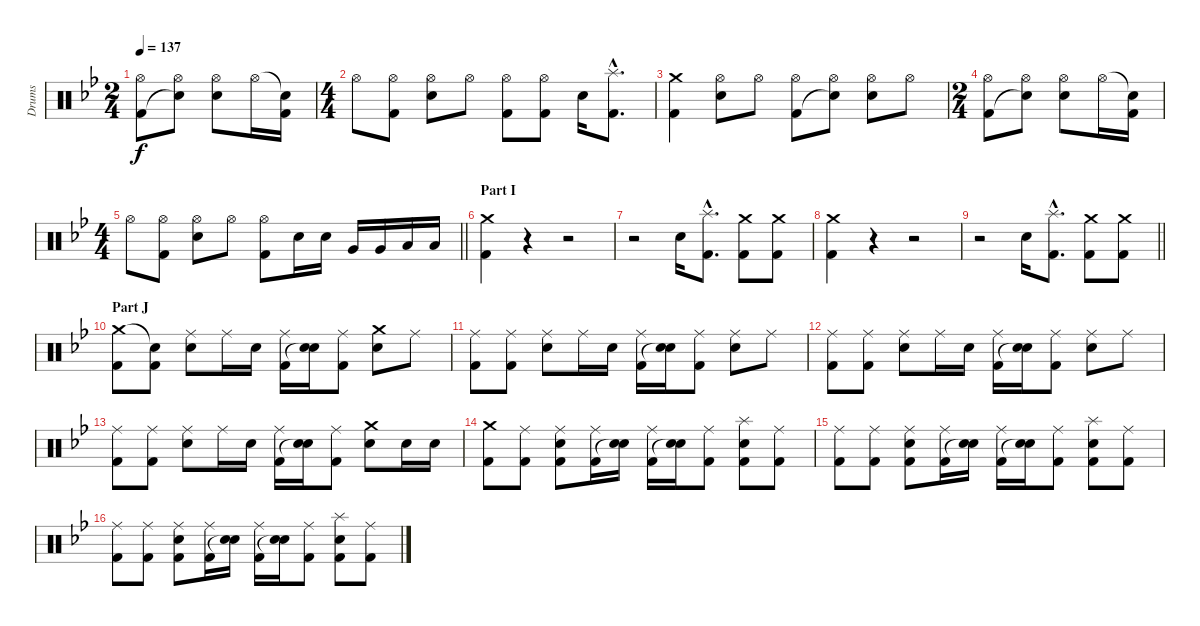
\track ("Drums" "Drums") {instrument percussion}
\staff {score}
\articulation defaults
\ts (2 4)
\tempo 137
\clef neutral
\ks bb
("Hi-Hat (open)" "Kick (hit) 2").8{dy f} ("Hi-Hat (open)" "Snare (hit)"{t}).8 ("Hi-Hat (open)" "Electric Snare (hit)").8 "Hi-Hat (open)".16 ("Snare (hit)"{t} "Kick (hit) 2").16 |
\ts (4 4)
"Hi-Hat (open)".8 ("Hi-Hat (open)" "Kick (hit) 2").8 ("Hi-Hat (open)" "Electric Snare (hit)").8 "Hi-Hat (open)".8 ("Hi-Hat (open)" "Kick (hit) 2").8 ("Hi-Hat (open)" "Kick (hit) 2").8 "Electric Snare (hit)".16 ("Splash (hit)"{hac} "Kick (hit) 2"{hac}).8{d} |
("Crash medium (hit)" "Kick (hit) 2").4 ("Hi-Hat (open)" "Electric Snare (hit)").8 "Hi-Hat (open)".8 ("Hi-Hat (open)" "Kick (hit) 2").8 ("Hi-Hat (open)" "Snare (hit)"{t}).8 ("Hi-Hat (open)" "Electric Snare (hit)").8 "Hi-Hat (open)".8 |
\ts (2 4)
("Hi-Hat (open)" "Kick (hit) 2").8 ("Hi-Hat (open)" "Snare (hit)"{t}).8 ("Hi-Hat (open)" "Electric Snare (hit)").8 "Hi-Hat (open)".16 ("Snare (hit)"{t} "Kick (hit) 2").16 |
\ts (4 4)
\barLineRight lightlight "Hi-Hat (open)".8
("Hi-Hat (open)" "Kick (hit) 2").8 ("Hi-Hat (open)" "Electric Snare (hit)").8 "Hi-Hat (open)".8 ("Hi-Hat (open)" "Kick (hit) 2").8 "Electric Snare (hit)".16 "Electric Snare (hit)".16 "Very Low Tom (hit)".16 "Very Low Tom (hit)".16 "Low Floor Tom (hit)".16 "Low Floor Tom (hit)".16 |
\section ("" "Part I")
("Crash medium (hit)" "Kick (hit) 2").4 r.4 r.2 |
r.2 "Electric Snare (hit)".16 ("Splash (hit)"{hac} "Kick (hit) 2"{hac}).8{d} ("Crash medium (hit)" "Kick (hit) 2").8 ("Crash medium (hit)" "Kick (hit) 2").8 |
("Crash medium (hit)" "Kick (hit) 2").4 r.4 r.2 |
\barLineRight lightlight
r.2 "Electric Snare (hit)".16 ("Splash (hit)"{hac} "Kick (hit) 2"{hac}).8{d} ("Crash medium (hit)" "Kick (hit) 2").8 ("Crash medium (hit)" "Kick (hit) 2").8 |
\section ("" "Part J")
("Crash medium (hit)" "Kick (hit) 2").8 ("Snare (hit)"{t} "Kick (hit) 2").8 ("Ride (middle)" "Electric Snare (hit)").8 "Ride (middle)".16 "Electric Snare (hit)".16 ("Ride (middle)" "Kick (hit) 2").16 ("Electric Snare (hit)" "Snare (hit)"{t}).16 ("Ride (middle)" "Kick (hit) 2").8 ("Crash medium (hit)" "Electric Snare (hit)").8 "Ride (middle)".8 |
("Ride (middle)" "Kick (hit) 2").8 ("Ride (middle)" "Kick (hit) 2").8 ("Ride (middle)" "Electric Snare (hit)").8 "Ride (middle)".16 "Electric Snare (hit)".16 ("Ride (middle)" "Kick (hit) 2").16 ("Electric Snare (hit)" "Snare (hit)"{t}).16 ("Ride (middle)" "Kick (hit) 2").8 ("Ride (middle)" "Electric Snare (hit)").8 "Ride (middle)".8 |
("Ride (middle)" "Kick (hit) 2").8 ("Ride (middle)" "Kick (hit) 2").8 ("Ride (middle)" "Electric Snare (hit)").8 "Ride (middle)".16 "Electric Snare (hit)".16 ("Ride (middle)" "Kick (hit) 2").16 ("Electric Snare (hit)" "Snare (hit)"{t}).16 ("Ride (middle)" "Kick (hit) 2").8 ("Ride (middle)" "Electric Snare (hit)").8 "Ride (middle)".8 |
("Ride (middle)" "Kick (hit) 2").8 ("Ride (middle)" "Kick (hit) 2").8 ("Ride (middle)" "Electric Snare (hit)").8 "Ride (middle)".16 "Electric Snare (hit)".16 ("Ride (middle)" "Kick (hit) 2").16 ("Electric Snare (hit)" "Snare (hit)"{t}).16 ("Ride (middle)" "Kick (hit) 2").8 ("Crash medium (hit)" "Electric Snare (hit)").8 "Electric Snare (hit)".16 "Electric Snare (hit)".16 |
("Crash medium (hit)" "Kick (hit) 2").8 ("Ride (middle)" "Kick (hit) 2").8 ("Ride (middle)" "Electric Snare (hit)" "Kick (hit) 2").8 ("Ride (middle)" "Kick (hit) 2").16 ("Electric Snare (hit)" "Snare (hit)"{t}).16 ("Ride (middle)" "Kick (hit) 2").16 ("Electric Snare (hit)" "Snare (hit)"{t}).16 ("Ride (middle)" "Kick (hit) 2").8 ("Splash (hit)" "Electric Snare (hit)" "Kick (hit) 2").8 ("Ride (middle)" "Kick (hit) 2").8 |
("Ride (middle)" "Kick (hit) 2").8 ("Ride (middle)" "Kick (hit) 2").8 ("Ride (middle)" "Electric Snare (hit)" "Kick (hit) 2").8 ("Ride (middle)" "Kick (hit) 2").16 ("Electric Snare (hit)" "Snare (hit)"{t}).16 ("Ride (middle)" "Kick (hit) 2").16 ("Electric Snare (hit)" "Snare (hit)"{t}).16 ("Ride (middle)" "Kick (hit) 2").8 ("Splash (hit)" "Electric Snare (hit)" "Kick (hit) 2").8 ("Ride (middle)" "Kick (hit) 2").8 |
("Ride (middle)" "Kick (hit) 2").8 ("Ride (middle)" "Kick (hit) 2").8 ("Ride (middle)" "Electric Snare (hit)" "Kick (hit) 2").8 ("Ride (middle)" "Kick (hit) 2").16 ("Electric Snare (hit)" "Snare (hit)"{t}).16 ("Ride (middle)" "Kick (hit) 2").16 ("Electric Snare (hit)" "Snare (hit)"{t}).16 ("Ride (middle)" "Kick (hit) 2").8 ("Splash (hit)" "Electric Snare (hit)" "Kick (hit) 2").8 ("Ride (middle)" "Kick (hit) 2").8
